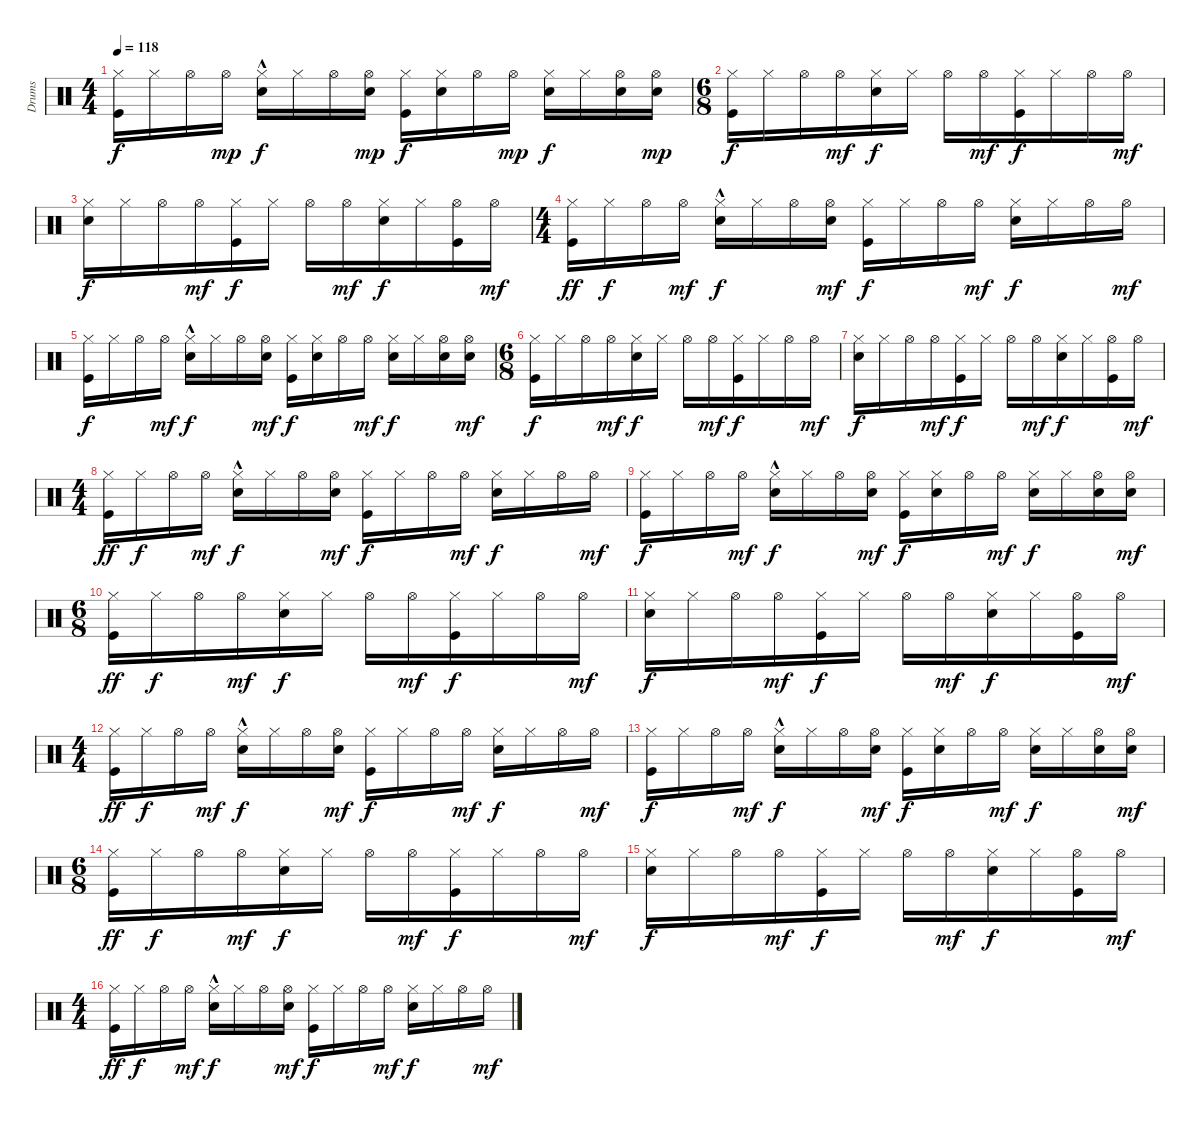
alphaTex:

\track ("Drums" "Drums") {instrument percussion}
\staff {score}
\articulation defaults
\ts (4 4)
\tempo 118
\clef neutral
\ks c
("Hi-Hat (closed)" "Kick (hit)").16{dy f} "Hi-Hat (closed)".16 "Hi-Hat (open)".16 "Hi-Hat (open)".16{dy mp} ("Hi-Hat (closed)" "Electric Snare (hit)"{hac}).16{dy f} "Hi-Hat (closed)".16 "Hi-Hat (open)".16 ("Electric Snare (hit)" "Hi-Hat (open)").16{dy mp} ("Kick (hit)" "Hi-Hat (closed)").16{dy f} ("Electric Snare (hit)" "Hi-Hat (closed)").16 "Hi-Hat (open)".16 "Hi-Hat (open)".16{dy mp} ("Hi-Hat (closed)" "Electric Snare (hit)").16{dy f} "Hi-Hat (closed)".16 ("Electric Snare (hit)" "Hi-Hat (open)").16 ("Electric Snare (hit)" "Hi-Hat (open)").16{dy mp} |
\ts (6 8)
("Hi-Hat (closed)" "Kick (hit)").16{dy f} "Hi-Hat (closed)".16 "Hi-Hat (open)".16 "Hi-Hat (open)".16{dy mf} ("Electric Snare (hit)" "Hi-Hat (closed)").16{dy f} "Hi-Hat (closed)".16 "Hi-Hat (open)".16 "Hi-Hat (open)".16{dy mf} ("Kick (hit)" "Hi-Hat (closed)").16{dy f} "Hi-Hat (closed)".16 "Hi-Hat (open)".16 "Hi-Hat (open)".16{dy mf} |
("Electric Snare (hit)" "Hi-Hat (closed)").16{dy f} "Hi-Hat (closed)".16 "Hi-Hat (open)".16 "Hi-Hat (open)".16{dy mf} ("Kick (hit)" "Hi-Hat (closed)").16{dy f} "Hi-Hat (closed)".16 "Hi-Hat (open)".16 "Hi-Hat (open)".16{dy mf} ("Electric Snare (hit)" "Hi-Hat (closed)").16{dy f} "Hi-Hat (closed)".16 ("Kick (hit)" "Hi-Hat (open)").16 "Hi-Hat (open)".16{dy mf} |
\ts (4 4)
("Kick (hit)" "Hi-Hat (closed)").16{dy ff} "Hi-Hat (closed)".16{dy f} "Hi-Hat (open)".16 "Hi-Hat (open)".16{dy mf} ("Electric Snare (hit)"{hac} "Hi-Hat (closed)").16{dy f} "Hi-Hat (closed)".16 "Hi-Hat (open)".16 ("Hi-Hat (open)" "Electric Snare (hit)").16{dy mf} ("Hi-Hat (closed)" "Kick (hit)").16{dy f} "Hi-Hat (closed)".16 "Hi-Hat (open)".16 "Hi-Hat (open)".16{dy mf} ("Electric Snare (hit)" "Hi-Hat (closed)").16{dy f} "Hi-Hat (closed)".16 "Hi-Hat (open)".16 "Hi-Hat (open)".16{dy mf} |
("Kick (hit)" "Hi-Hat (closed)").16{dy f} "Hi-Hat (closed)".16 "Hi-Hat (open)".16 "Hi-Hat (open)".16{dy mf} ("Electric Snare (hit)"{hac} "Hi-Hat (closed)").16{dy f} "Hi-Hat (closed)".16 "Hi-Hat (open)".16 ("Hi-Hat (open)" "Electric Snare (hit)").16{dy mf} ("Hi-Hat (closed)" "Kick (hit)").16{dy f} ("Electric Snare (hit)" "Hi-Hat (closed)").16 "Hi-Hat (open)".16 "Hi-Hat (open)".16{dy mf} ("Electric Snare (hit)" "Hi-Hat (closed)").16{dy f} "Hi-Hat (closed)".16 ("Electric Snare (hit)" "Hi-Hat (open)").16 ("Electric Snare (hit)" "Hi-Hat (open)").16{dy mf} |
\ts (6 8)
("Hi-Hat (closed)" "Kick (hit)").16{dy f} "Hi-Hat (closed)".16 "Hi-Hat (open)".16 "Hi-Hat (open)".16{dy mf} ("Electric Snare (hit)" "Hi-Hat (closed)").16{dy f} "Hi-Hat (closed)".16 "Hi-Hat (open)".16 "Hi-Hat (open)".16{dy mf} ("Kick (hit)" "Hi-Hat (closed)").16{dy f} "Hi-Hat (closed)".16 "Hi-Hat (open)".16 "Hi-Hat (open)".16{dy mf} |
("Electric Snare (hit)" "Hi-Hat (closed)").16{dy f} "Hi-Hat (closed)".16 "Hi-Hat (open)".16 "Hi-Hat (open)".16{dy mf} ("Kick (hit)" "Hi-Hat (closed)").16{dy f} "Hi-Hat (closed)".16 "Hi-Hat (open)".16 "Hi-Hat (open)".16{dy mf} ("Electric Snare (hit)" "Hi-Hat (closed)").16{dy f} "Hi-Hat (closed)".16 ("Kick (hit)" "Hi-Hat (open)").16 "Hi-Hat (open)".16{dy mf} |
\ts (4 4)
("Kick (hit)" "Hi-Hat (closed)").16{dy ff} "Hi-Hat (closed)".16{dy f} "Hi-Hat (open)".16 "Hi-Hat (open)".16{dy mf} ("Electric Snare (hit)"{hac} "Hi-Hat (closed)").16{dy f} "Hi-Hat (closed)".16 "Hi-Hat (open)".16 ("Hi-Hat (open)" "Electric Snare (hit)").16{dy mf} ("Hi-Hat (closed)" "Kick (hit)").16{dy f} "Hi-Hat (closed)".16 "Hi-Hat (open)".16 "Hi-Hat (open)".16{dy mf} ("Electric Snare (hit)" "Hi-Hat (closed)").16{dy f} "Hi-Hat (closed)".16 "Hi-Hat (open)".16 "Hi-Hat (open)".16{dy mf} |
("Kick (hit)" "Hi-Hat (closed)").16{dy f} "Hi-Hat (closed)".16 "Hi-Hat (open)".16 "Hi-Hat (open)".16{dy mf} ("Electric Snare (hit)"{hac} "Hi-Hat (closed)").16{dy f} "Hi-Hat (closed)".16 "Hi-Hat (open)".16 ("Hi-Hat (open)" "Electric Snare (hit)").16{dy mf} ("Hi-Hat (closed)" "Kick (hit)").16{dy f} ("Electric Snare (hit)" "Hi-Hat (closed)").16 "Hi-Hat (open)".16 "Hi-Hat (open)".16{dy mf} ("Electric Snare (hit)" "Hi-Hat (closed)").16{dy f} "Hi-Hat (closed)".16 ("Electric Snare (hit)" "Hi-Hat (open)").16 ("Electric Snare (hit)" "Hi-Hat (open)").16{dy mf} |
\ts (6 8)
("Hi-Hat (closed)" "Kick (hit)").16{dy ff} "Hi-Hat (closed)".16{dy f} "Hi-Hat (open)".16 "Hi-Hat (open)".16{dy mf} ("Electric Snare (hit)" "Hi-Hat (closed)").16{dy f} "Hi-Hat (closed)".16 "Hi-Hat (open)".16 "Hi-Hat (open)".16{dy mf} ("Kick (hit)" "Hi-Hat (closed)").16{dy f} "Hi-Hat (closed)".16 "Hi-Hat (open)".16 "Hi-Hat (open)".16{dy mf} |
("Electric Snare (hit)" "Hi-Hat (closed)").16{dy f} "Hi-Hat (closed)".16 "Hi-Hat (open)".16 "Hi-Hat (open)".16{dy mf} ("Kick (hit)" "Hi-Hat (closed)").16{dy f} "Hi-Hat (closed)".16 "Hi-Hat (open)".16 "Hi-Hat (open)".16{dy mf} ("Electric Snare (hit)" "Hi-Hat (closed)").16{dy f} "Hi-Hat (closed)".16 ("Kick (hit)" "Hi-Hat (open)").16 "Hi-Hat (open)".16{dy mf} |
\ts (4 4)
("Kick (hit)" "Hi-Hat (closed)").16{dy ff} "Hi-Hat (closed)".16{dy f} "Hi-Hat (open)".16 "Hi-Hat (open)".16{dy mf} ("Electric Snare (hit)"{hac} "Hi-Hat (closed)").16{dy f} "Hi-Hat (closed)".16 "Hi-Hat (open)".16 ("Hi-Hat (open)" "Electric Snare (hit)").16{dy mf} ("Hi-Hat (closed)" "Kick (hit)").16{dy f} "Hi-Hat (closed)".16 "Hi-Hat (open)".16 "Hi-Hat (open)".16{dy mf} ("Electric Snare (hit)" "Hi-Hat (closed)").16{dy f} "Hi-Hat (closed)".16 "Hi-Hat (open)".16 "Hi-Hat (open)".16{dy mf} |
("Kick (hit)" "Hi-Hat (closed)").16{dy f} "Hi-Hat (closed)".16 "Hi-Hat (open)".16 "Hi-Hat (open)".16{dy mf} ("Electric Snare (hit)"{hac} "Hi-Hat (closed)").16{dy f} "Hi-Hat (closed)".16 "Hi-Hat (open)".16 ("Hi-Hat (open)" "Electric Snare (hit)").16{dy mf} ("Hi-Hat (closed)" "Kick (hit)").16{dy f} ("Electric Snare (hit)" "Hi-Hat (closed)").16 "Hi-Hat (open)".16 "Hi-Hat (open)".16{dy mf} ("Electric Snare (hit)" "Hi-Hat (closed)").16{dy f} "Hi-Hat (closed)".16 ("Electric Snare (hit)" "Hi-Hat (open)").16 ("Electric Snare (hit)" "Hi-Hat (open)").16{dy mf} |
\ts (6 8)
("Hi-Hat (closed)" "Kick (hit)").16{dy ff} "Hi-Hat (closed)".16{dy f} "Hi-Hat (open)".16 "Hi-Hat (open)".16{dy mf} ("Electric Snare (hit)" "Hi-Hat (closed)").16{dy f} "Hi-Hat (closed)".16 "Hi-Hat (open)".16 "Hi-Hat (open)".16{dy mf} ("Kick (hit)" "Hi-Hat (closed)").16{dy f} "Hi-Hat (closed)".16 "Hi-Hat (open)".16 "Hi-Hat (open)".16{dy mf} |
("Electric Snare (hit)" "Hi-Hat (closed)").16{dy f} "Hi-Hat (closed)".16 "Hi-Hat (open)".16 "Hi-Hat (open)".16{dy mf} ("Kick (hit)" "Hi-Hat (closed)").16{dy f} "Hi-Hat (closed)".16 "Hi-Hat (open)".16 "Hi-Hat (open)".16{dy mf} ("Electric Snare (hit)" "Hi-Hat (closed)").16{dy f} "Hi-Hat (closed)".16 ("Kick (hit)" "Hi-Hat (open)").16 "Hi-Hat (open)".16{dy mf} |
\ts (4 4)
("Kick (hit)" "Hi-Hat (closed)").16{dy ff} "Hi-Hat (closed)".16{dy f} "Hi-Hat (open)".16 "Hi-Hat (open)".16{dy mf} ("Electric Snare (hit)"{hac} "Hi-Hat (closed)").16{dy f} "Hi-Hat (closed)".16 "Hi-Hat (open)".16 ("Hi-Hat (open)" "Electric Snare (hit)").16{dy mf} ("Hi-Hat (closed)" "Kick (hit)").16{dy f} "Hi-Hat (closed)".16 "Hi-Hat (open)".16 "Hi-Hat (open)".16{dy mf} ("Electric Snare (hit)" "Hi-Hat (closed)").16{dy f} "Hi-Hat (closed)".16 "Hi-Hat (open)".16 "Hi-Hat (open)".16{dy mf}
